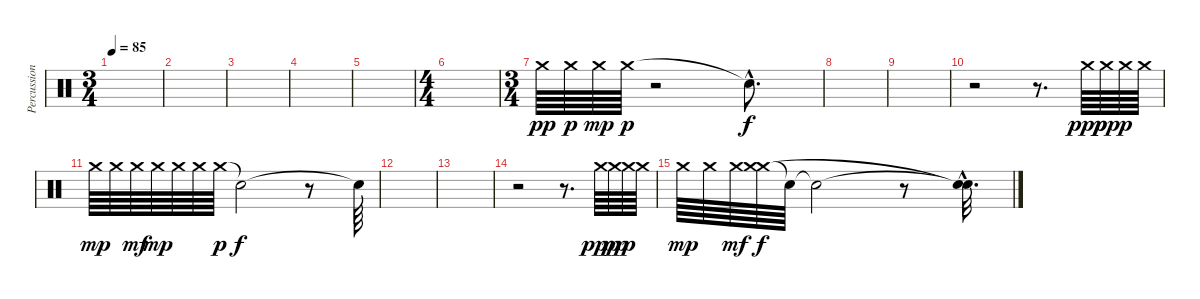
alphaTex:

\track ("Percussion" "Percussion") {instrument percussion}
\staff {score}
\articulation defaults
\ts (3 4)
\tempo 85
\clef neutral
\ks c
|
|
|
|
|
\ts (4 4)
|
\ts (3 4)
"Crash medium (hit)".64{dy pp} "Crash medium (hit)".64{dy p} "Crash medium (hit)".64{dy mp} "Crash medium (hit)".64{dy p} r.2 "Snare (hit)"{hac t}.8{d dy f} |
|
|
r.2 r.8{d} "Crash medium (hit)".64{dy ppp} "Crash medium (hit)".64{dy pp} "Crash medium (hit)".64{dy p} "Crash medium (hit)".64 |
"Crash medium (hit)".64{dy mp} "Crash medium (hit)".64 "Crash medium (hit)".64{dy mf} "Crash medium (hit)".64{dy mp} "Crash medium (hit)".64 "Crash medium (hit)".64 "Crash medium (hit)".64{dy p} "Snare (hit)"{t}.2{dy f} r.8 "Snare (hit)"{t}.64 |
|
|
r.2 r.8{d} "Crash medium (hit)".64{dy ppp} "Crash medium (hit)".64{dy pp} "Crash medium (hit)".64{dy p} "Crash medium (hit)".64 |
"Crash medium (hit)".64{dy mp} "Crash medium (hit)".64 "Crash medium (hit)".64{dy mf} ("Crash medium (hit)" "Crash medium (hit)").64{dy f} "Snare (hit)"{t}.64 "Snare (hit)"{t}.2 r.8 ("Snare (hit)"{hac t} "Snare (hit)"{hac t}).32{d}
